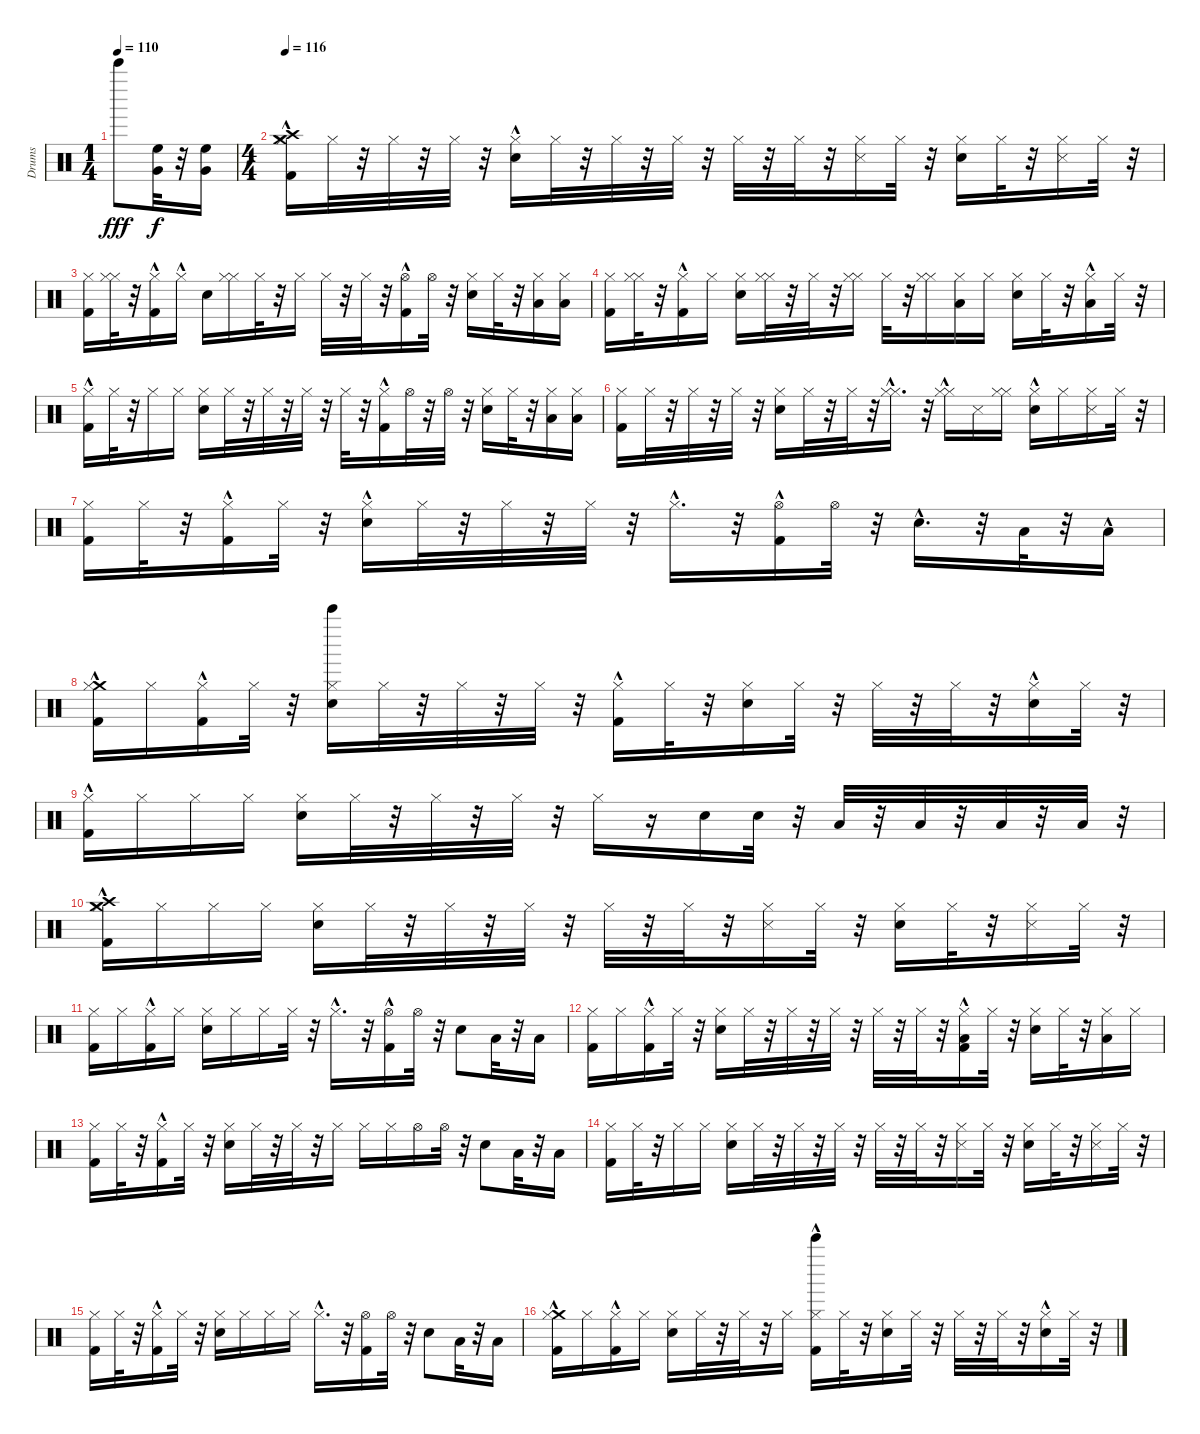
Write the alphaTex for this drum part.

\track ("Drums" "Drums") {instrument percussion}
\staff {score}
\articulation defaults
\ts (1 4)
\tempo 110
\clef neutral
\ks c "Bell Tree (hit)".8{dy fff}
("Very Low Tom (hit)" "High Floor Tom (hit)").32{dy f} r.32 ("High Floor Tom (hit)" "Very Low Tom (hit)").16 |
\ts (4 4)
\tempo 116
("Kick (hit) 2"{hac} "Crash medium (hit)"{hac} "Hi-Hat (closed)" "Crash high (hit)"{hac}).16 "Hi-Hat (closed)".32 r.32 "Hi-Hat (closed)".32 r.32 "Hi-Hat (closed)".32 r.32 ("Snare (hit) 2"{hac} "Hi-Hat (closed)").16 "Hi-Hat (closed)".32 r.32 "Hi-Hat (closed)".32 r.32 "Hi-Hat (closed)".32 r.32 "Hi-Hat (closed)".32 r.32 "Hi-Hat (closed)".32 r.32 ("Snare (side stick) 3" "Hi-Hat (closed)").16 "Hi-Hat (closed)".32 r.32 ("Snare (hit) 2" "Hi-Hat (closed)").16 "Hi-Hat (closed)".32 r.32 ("Snare (side stick) 3" "Hi-Hat (closed)").16 "Hi-Hat (closed)".32 r.32 |
("Kick (hit) 2" "Hi-Hat (closed)").16 ("Hi-Hat (closed)" "Hi-Hat (closed)").32 r.32 ("Hi-Hat (closed)" "Kick (hit) 2"{hac}).16 "Hi-Hat (closed)"{hac}.16 "Snare (hit) 2".16 ("Hi-Hat (closed)" "Hi-Hat (closed)").16 "Hi-Hat (closed)".32 r.32 "Hi-Hat (closed)".16 "Hi-Hat (closed)".32 r.32 "Hi-Hat (closed)".32 r.32 ("Kick (hit) 2"{hac} "Hi-Hat (open)").16 "Hi-Hat (open)".32 r.32 ("Hi-Hat (closed)" "Snare (hit) 2").16 "Hi-Hat (closed)".32 r.32 ("Low Tom (hit)" "Hi-Hat (closed)").16 ("Hi-Hat (closed)" "Low Tom (hit)").16 |
("Kick (hit) 2" "Hi-Hat (closed)").16 ("Hi-Hat (closed)" "Hi-Hat (closed)").32 r.32 ("Kick (hit) 2"{hac} "Hi-Hat (closed)").16 "Hi-Hat (closed)".16 ("Snare (hit) 2" "Hi-Hat (closed)").16 ("Hi-Hat (closed)" "Hi-Hat (closed)").32 r.32 "Hi-Hat (closed)".32 r.32 ("Hi-Hat (closed)" "Hi-Hat (closed)").16 "Hi-Hat (closed)".32 r.32 ("Hi-Hat (closed)" "Hi-Hat (closed)").16 ("Low Tom (hit)" "Hi-Hat (closed)").16 "Hi-Hat (closed)".16 ("Snare (hit) 2" "Hi-Hat (closed)").16 "Hi-Hat (closed)".32 r.32 ("Hi-Hat (closed)" "Low Tom (hit)"{hac}).16 "Hi-Hat (closed)".32 r.32 |
("Hi-Hat (closed)" "Kick (hit) 2"{hac}).16 "Hi-Hat (closed)".32 r.32 "Hi-Hat (closed)".16 "Hi-Hat (closed)".16 ("Snare (hit) 2" "Hi-Hat (closed)").16 "Hi-Hat (closed)".32 r.32 "Hi-Hat (closed)".32 r.32 "Hi-Hat (closed)".32 r.32 "Hi-Hat (closed)".32 r.32 ("Hi-Hat (closed)" "Kick (hit) 2"{hac}).16 "Hi-Hat (open)".32 r.32 "Hi-Hat (open)".32 r.32 ("Snare (hit) 2" "Hi-Hat (closed)").16 "Hi-Hat (closed)".32 r.32 ("Hi-Hat (closed)" "Low Tom (hit)").16 ("Hi-Hat (closed)" "Low Tom (hit)").16 |
("Hi-Hat (closed)" "Kick (hit) 2").16 "Hi-Hat (closed)".32 r.32 "Hi-Hat (closed)".32 r.32 "Hi-Hat (closed)".32 r.32 ("Snare (hit) 2" "Hi-Hat (closed)").16 "Hi-Hat (closed)".32 r.32 "Hi-Hat (closed)".32 r.32 ("Hi-Hat (closed)"{hac} "Hi-Hat (closed)"{hac}).16{d} r.32 ("Hi-Hat (closed)"{hac} "Hi-Hat (closed)"{hac}).16 "Snare (side stick) 3".16 ("Hi-Hat (closed)" "Hi-Hat (closed)").16 ("Snare (hit) 2"{hac} "Hi-Hat (closed)").16 "Hi-Hat (closed)".16 ("Snare (side stick) 3" "Hi-Hat (closed)").16 "Hi-Hat (closed)".32 r.32 |
("Hi-Hat (closed)" "Kick (hit) 2").16 "Hi-Hat (closed)".32 r.32 ("Kick (hit) 2"{hac} "Hi-Hat (closed)").16 "Hi-Hat (closed)".32 r.32 ("Snare (hit) 2"{hac} "Hi-Hat (closed)").16 "Hi-Hat (closed)".32 r.32 "Hi-Hat (closed)".32 r.32 "Hi-Hat (closed)".32 r.32 "Hi-Hat (closed)"{hac}.16{d} r.32 ("Kick (hit) 2"{hac} "Hi-Hat (open)").16 "Hi-Hat (open)".32 r.32 "Snare (hit) 2"{hac}.16{d} r.32 "Low Tom (hit)".32 r.32 "Low Tom (hit)"{hac}.16 |
("Crash medium (hit)"{hac} "Kick (hit) 2"{hac} "Hi-Hat (closed)").16 "Hi-Hat (closed)".16 ("Kick (hit) 2"{hac} "Hi-Hat (closed)").16 "Hi-Hat (closed)".32 r.32 ("Hi-Hat (closed)" "Bell Tree (hit)" "Snare (hit) 2").16 "Hi-Hat (closed)".32 r.32 "Hi-Hat (closed)".32 r.32 "Hi-Hat (closed)".32 r.32 ("Hi-Hat (closed)" "Kick (hit) 2"{hac}).16 "Hi-Hat (closed)".32 r.32 ("Snare (hit) 2" "Hi-Hat (closed)").16 "Hi-Hat (closed)".32 r.32 "Hi-Hat (closed)".32 r.32 "Hi-Hat (closed)".32 r.32 ("Hi-Hat (closed)" "Snare (hit) 2"{hac}).16 "Hi-Hat (closed)".32 r.32 |
("Kick (hit) 2"{hac} "Hi-Hat (closed)").16 "Hi-Hat (closed)".16 "Hi-Hat (closed)".16 "Hi-Hat (closed)".16 ("Hi-Hat (closed)" "Snare (hit) 2").16 "Hi-Hat (closed)".32 r.32 "Hi-Hat (closed)".32 r.32 "Hi-Hat (closed)".32 r.32 "Hi-Hat (closed)".16 r.16 "Snare (hit) 2".16 "Snare (hit) 2".32 r.32 "Low Tom (hit)".32 r.32 "Low Tom (hit)".32 r.32 "Low Floor Tom (hit)".32 r.32 "Low Floor Tom (hit)".32 r.32 |
("Kick (hit) 2"{hac} "Crash medium (hit)" "Hi-Hat (closed)" "Crash high (hit)").16 "Hi-Hat (closed)".16 "Hi-Hat (closed)".16 "Hi-Hat (closed)".16 ("Snare (hit) 2" "Hi-Hat (closed)").16 "Hi-Hat (closed)".32 r.32 "Hi-Hat (closed)".32 r.32 "Hi-Hat (closed)".32 r.32 "Hi-Hat (closed)".32 r.32 "Hi-Hat (closed)".32 r.32 ("Snare (side stick) 3" "Hi-Hat (closed)").16 "Hi-Hat (closed)".32 r.32 ("Snare (hit) 2" "Hi-Hat (closed)").16 "Hi-Hat (closed)".32 r.32 ("Hi-Hat (closed)" "Snare (side stick) 3").16 "Hi-Hat (closed)".32 r.32 |
("Hi-Hat (closed)" "Kick (hit) 2").16 "Hi-Hat (closed)".16 ("Hi-Hat (closed)" "Kick (hit) 2"{hac}).16 "Hi-Hat (closed)".16 ("Snare (hit) 2" "Hi-Hat (closed)").16 "Hi-Hat (closed)".16 "Hi-Hat (closed)".16 "Hi-Hat (closed)".32 r.32 "Hi-Hat (closed)"{hac}.16{d} r.32 ("Hi-Hat (open)" "Kick (hit) 2"{hac}).16 "Hi-Hat (open)".32 r.32 "Snare (hit) 2".8 "Low Tom (hit)".32 r.32 "Low Tom (hit)".16 |
("Hi-Hat (closed)" "Kick (hit) 2").16 "Hi-Hat (closed)".16 ("Kick (hit) 2"{hac} "Hi-Hat (closed)").16 "Hi-Hat (closed)".32 r.32 ("Snare (hit) 2" "Hi-Hat (closed)").16 "Hi-Hat (closed)".32 r.32 "Hi-Hat (closed)".32 r.32 "Hi-Hat (closed)".32 r.32 "Hi-Hat (closed)".32 r.32 "Hi-Hat (closed)".32 r.32 ("Kick (hit) 2"{hac} "Hi-Hat (closed)" "Low Tom (hit)").16 "Hi-Hat (closed)".32 r.32 ("Hi-Hat (closed)" "Snare (hit) 2").16 "Hi-Hat (closed)".32 r.32 ("Low Floor Tom (hit)" "Hi-Hat (closed)").16 "Hi-Hat (closed)".16 |
("Hi-Hat (closed)" "Kick (hit) 2").16 "Hi-Hat (closed)".32 r.32 ("Hi-Hat (closed)" "Kick (hit) 2"{hac}).16 "Hi-Hat (closed)".32 r.32 ("Hi-Hat (closed)" "Snare (hit) 2").16 "Hi-Hat (closed)".32 r.32 "Hi-Hat (closed)".32 r.32 "Hi-Hat (closed)".16 "Hi-Hat (closed)".16 "Hi-Hat (closed)".16 "Hi-Hat (open)".16 "Hi-Hat (open)".32 r.32 "Snare (hit) 2".8 "Low Tom (hit)".32 r.32 "Low Tom (hit)".16 |
("Kick (hit) 2" "Hi-Hat (closed)").16 "Hi-Hat (closed)".32 r.32 "Hi-Hat (closed)".16 "Hi-Hat (closed)".16 ("Hi-Hat (closed)" "Snare (hit) 2").16 "Hi-Hat (closed)".32 r.32 "Hi-Hat (closed)".32 r.32 "Hi-Hat (closed)".32 r.32 "Hi-Hat (closed)".32 r.32 "Hi-Hat (closed)".32 r.32 ("Hi-Hat (closed)" "Snare (side stick) 3").16 "Hi-Hat (closed)".32 r.32 ("Snare (hit) 2" "Hi-Hat (closed)").16 "Hi-Hat (closed)".32 r.32 ("Snare (side stick) 3" "Hi-Hat (closed)").16 "Hi-Hat (closed)".32 r.32 |
("Kick (hit) 2" "Hi-Hat (closed)").16 "Hi-Hat (closed)".32 r.32 ("Kick (hit) 2"{hac} "Hi-Hat (closed)").16 "Hi-Hat (closed)".32 r.32 ("Hi-Hat (closed)" "Snare (hit) 2").16 "Hi-Hat (closed)".16 "Hi-Hat (closed)".16 "Hi-Hat (closed)".16 "Hi-Hat (closed)"{hac}.16{d} r.32 ("Kick (hit) 2" "Hi-Hat (open)").16 "Hi-Hat (open)".32 r.32 "Snare (hit) 2".8 "Low Tom (hit)".32 r.32 "Low Tom (hit)".16 |
("Kick (hit) 2" "Crash medium (hit)"{hac} "Hi-Hat (closed)").16 "Hi-Hat (closed)".16 ("Hi-Hat (closed)" "Kick (hit) 2"{hac}).16 "Hi-Hat (closed)".16 ("Hi-Hat (closed)" "Snare (hit) 2").16 "Hi-Hat (closed)".32 r.32 "Hi-Hat (closed)".32 r.32 "Hi-Hat (closed)".16 ("Hi-Hat (closed)" "Kick (hit) 2"{hac} "Bell Tree (hit)").16 "Hi-Hat (closed)".32 r.32 ("Snare (hit) 2" "Hi-Hat (closed)").16 "Hi-Hat (closed)".32 r.32 "Hi-Hat (closed)".32 r.32 "Hi-Hat (closed)".32 r.32 ("Hi-Hat (closed)" "Snare (hit) 2"{hac}).16 "Hi-Hat (closed)".32 r.32
